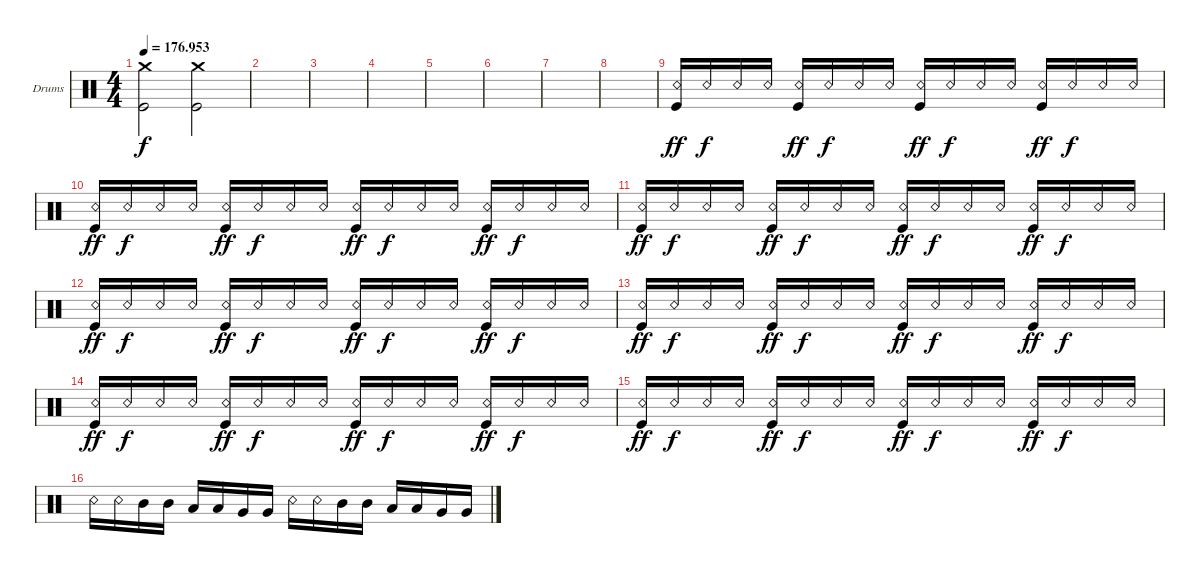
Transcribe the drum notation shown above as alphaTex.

\defaultSystemsLayout 4
\bracketExtendMode groupsimilarinstruments
\firstSystemTrackNameOrientation horizontal
\otherSystemsTrackNameOrientation horizontal
\track ("Christopher" "Drums") {instrument percussion}
\staff {score}
\articulation defaults
\ts (4 4)
\tempo
176.953
\accidentals auto
\clef neutral
\ottava regular
\simile none
\ks c
("Kick (hit)" "Crash medium (hit)").2{dy f} ("Kick (hit)" "Crash medium (hit)").2 |
|
|
|
|
|
|
|
("Snare (rim shot)" "Kick (hit)").16{dy ff} "Snare (rim shot)".16{dy f} "Snare (rim shot)".16 "Snare (rim shot)".16 ("Snare (rim shot)" "Kick (hit)").16{dy ff} "Snare (rim shot)".16{dy f} "Snare (rim shot)".16 "Snare (rim shot)".16 ("Snare (rim shot)" "Kick (hit)").16{dy ff} "Snare (rim shot)".16{dy f} "Snare (rim shot)".16 "Snare (rim shot)".16 ("Snare (rim shot)" "Kick (hit)").16{dy ff} "Snare (rim shot)".16{dy f} "Snare (rim shot)".16 "Snare (rim shot)".16 |
("Snare (rim shot)" "Kick (hit)").16{dy ff} "Snare (rim shot)".16{dy f} "Snare (rim shot)".16 "Snare (rim shot)".16 ("Snare (rim shot)" "Kick (hit)").16{dy ff} "Snare (rim shot)".16{dy f} "Snare (rim shot)".16 "Snare (rim shot)".16 ("Snare (rim shot)" "Kick (hit)").16{dy ff} "Snare (rim shot)".16{dy f} "Snare (rim shot)".16 "Snare (rim shot)".16 ("Snare (rim shot)" "Kick (hit)").16{dy ff} "Snare (rim shot)".16{dy f} "Snare (rim shot)".16 "Snare (rim shot)".16 |
("Snare (rim shot)" "Kick (hit)").16{dy ff} "Snare (rim shot)".16{dy f} "Snare (rim shot)".16 "Snare (rim shot)".16 ("Snare (rim shot)" "Kick (hit)").16{dy ff} "Snare (rim shot)".16{dy f} "Snare (rim shot)".16 "Snare (rim shot)".16 ("Snare (rim shot)" "Kick (hit)").16{dy ff} "Snare (rim shot)".16{dy f} "Snare (rim shot)".16 "Snare (rim shot)".16 ("Snare (rim shot)" "Kick (hit)").16{dy ff} "Snare (rim shot)".16{dy f} "Snare (rim shot)".16 "Snare (rim shot)".16 |
("Snare (rim shot)" "Kick (hit)").16{dy ff} "Snare (rim shot)".16{dy f} "Snare (rim shot)".16 "Snare (rim shot)".16 ("Snare (rim shot)" "Kick (hit)").16{dy ff} "Snare (rim shot)".16{dy f} "Snare (rim shot)".16 "Snare (rim shot)".16 ("Snare (rim shot)" "Kick (hit)").16{dy ff} "Snare (rim shot)".16{dy f} "Snare (rim shot)".16 "Snare (rim shot)".16 ("Snare (rim shot)" "Kick (hit)").16{dy ff} "Snare (rim shot)".16{dy f} "Snare (rim shot)".16 "Snare (rim shot)".16 |
("Snare (rim shot)" "Kick (hit)").16{dy ff} "Snare (rim shot)".16{dy f} "Snare (rim shot)".16 "Snare (rim shot)".16 ("Snare (rim shot)" "Kick (hit)").16{dy ff} "Snare (rim shot)".16{dy f} "Snare (rim shot)".16 "Snare (rim shot)".16 ("Snare (rim shot)" "Kick (hit)").16{dy ff} "Snare (rim shot)".16{dy f} "Snare (rim shot)".16 "Snare (rim shot)".16 ("Snare (rim shot)" "Kick (hit)").16{dy ff} "Snare (rim shot)".16{dy f} "Snare (rim shot)".16 "Snare (rim shot)".16 |
("Snare (rim shot)" "Kick (hit)").16{dy ff} "Snare (rim shot)".16{dy f} "Snare (rim shot)".16 "Snare (rim shot)".16 ("Snare (rim shot)" "Kick (hit)").16{dy ff} "Snare (rim shot)".16{dy f} "Snare (rim shot)".16 "Snare (rim shot)".16 ("Snare (rim shot)" "Kick (hit)").16{dy ff} "Snare (rim shot)".16{dy f} "Snare (rim shot)".16 "Snare (rim shot)".16 ("Snare (rim shot)" "Kick (hit)").16{dy ff} "Snare (rim shot)".16{dy f} "Snare (rim shot)".16 "Snare (rim shot)".16 |
("Snare (rim shot)" "Kick (hit)").16{dy ff} "Snare (rim shot)".16{dy f} "Snare (rim shot)".16 "Snare (rim shot)".16 ("Snare (rim shot)" "Kick (hit)").16{dy ff} "Snare (rim shot)".16{dy f} "Snare (rim shot)".16 "Snare (rim shot)".16 ("Snare (rim shot)" "Kick (hit)").16{dy ff} "Snare (rim shot)".16{dy f} "Snare (rim shot)".16 "Snare (rim shot)".16 ("Snare (rim shot)" "Kick (hit)").16{dy ff} "Snare (rim shot)".16{dy f} "Snare (rim shot)".16 "Snare (rim shot)".16 |
"Snare (rim shot)".16 "Snare (rim shot)".16 "Mid Tom (hit)".16 "Mid Tom (hit)".16 "Low Tom (hit)".16 "Low Tom (hit)".16 "Very Low Tom (hit)".16 "Very Low Tom (hit)".16 "Snare (rim shot)".16 "Snare (rim shot)".16 "Mid Tom (hit)".16 "Mid Tom (hit)".16 "Low Tom (hit)".16 "Low Tom (hit)".16 "Very Low Tom (hit)".16 "Very Low Tom (hit)".16
